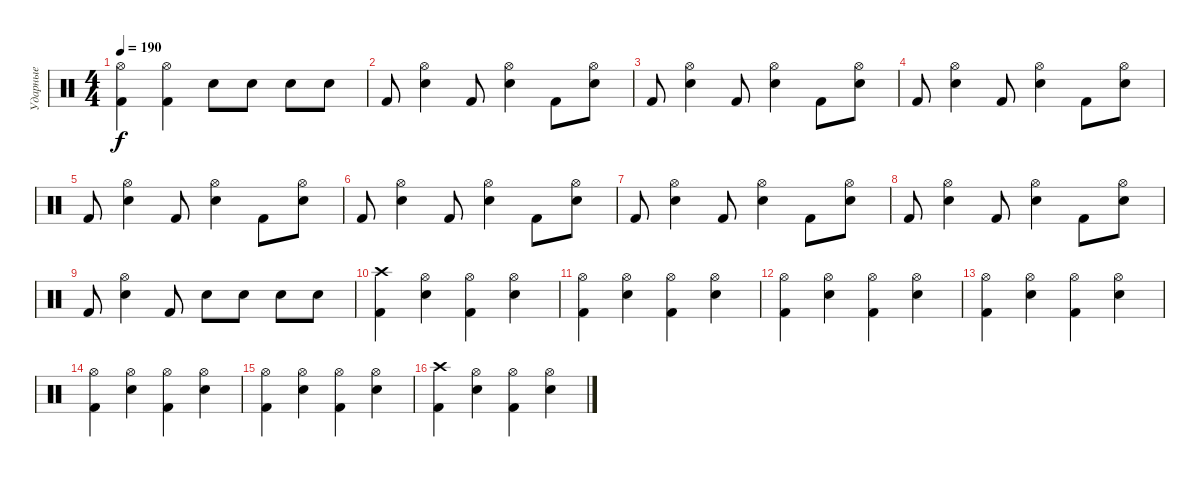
\track ("Ударные" "Ударные") {instrument percussion}
\staff {score}
\articulation defaults
\ts (4 4)
\tempo 190
\clef neutral
\ks c
("Hi-Hat (open)" "Kick (hit) 2").4{dy f} ("Hi-Hat (open)" "Kick (hit) 2").4 "Electric Snare (hit)".8 "Electric Snare (hit)".8 "Electric Snare (hit)".8 "Electric Snare (hit)".8 |
"Kick (hit) 2".8 ("Hi-Hat (open)" "Electric Snare (hit)").4 "Kick (hit) 2".8 ("Hi-Hat (open)" "Electric Snare (hit)").4 "Kick (hit) 2".8 ("Hi-Hat (open)" "Electric Snare (hit)").8 |
"Kick (hit) 2".8 ("Hi-Hat (open)" "Electric Snare (hit)").4 "Kick (hit) 2".8 ("Hi-Hat (open)" "Electric Snare (hit)").4 "Kick (hit) 2".8 ("Hi-Hat (open)" "Electric Snare (hit)").8 |
"Kick (hit) 2".8 ("Hi-Hat (open)" "Electric Snare (hit)").4 "Kick (hit) 2".8 ("Hi-Hat (open)" "Electric Snare (hit)").4 "Kick (hit) 2".8 ("Hi-Hat (open)" "Electric Snare (hit)").8 |
"Kick (hit) 2".8 ("Hi-Hat (open)" "Electric Snare (hit)").4 "Kick (hit) 2".8 ("Hi-Hat (open)" "Electric Snare (hit)").4 "Kick (hit) 2".8 ("Hi-Hat (open)" "Electric Snare (hit)").8 |
"Kick (hit) 2".8 ("Hi-Hat (open)" "Electric Snare (hit)").4 "Kick (hit) 2".8 ("Hi-Hat (open)" "Electric Snare (hit)").4 "Kick (hit) 2".8 ("Hi-Hat (open)" "Electric Snare (hit)").8 |
"Kick (hit) 2".8 ("Hi-Hat (open)" "Electric Snare (hit)").4 "Kick (hit) 2".8 ("Hi-Hat (open)" "Electric Snare (hit)").4 "Kick (hit) 2".8 ("Hi-Hat (open)" "Electric Snare (hit)").8 |
"Kick (hit) 2".8 ("Hi-Hat (open)" "Electric Snare (hit)").4 "Kick (hit) 2".8 ("Hi-Hat (open)" "Electric Snare (hit)").4 "Kick (hit) 2".8 ("Hi-Hat (open)" "Electric Snare (hit)").8 |
"Kick (hit) 2".8 ("Hi-Hat (open)" "Electric Snare (hit)").4 "Kick (hit) 2".8 "Electric Snare (hit)".8 "Electric Snare (hit)".8 "Electric Snare (hit)".8 "Electric Snare (hit)".8 |
("Crash high (hit)" "Kick (hit) 2").4 ("Hi-Hat (open)" "Electric Snare (hit)").4 ("Hi-Hat (open)" "Kick (hit) 2").4 ("Hi-Hat (open)" "Electric Snare (hit)").4 |
("Hi-Hat (open)" "Kick (hit) 2").4 ("Hi-Hat (open)" "Electric Snare (hit)").4 ("Hi-Hat (open)" "Kick (hit) 2").4 ("Hi-Hat (open)" "Electric Snare (hit)").4 |
("Hi-Hat (open)" "Kick (hit) 2").4 ("Hi-Hat (open)" "Electric Snare (hit)").4 ("Hi-Hat (open)" "Kick (hit) 2").4 ("Hi-Hat (open)" "Electric Snare (hit)").4 |
("Hi-Hat (open)" "Kick (hit) 2").4 ("Hi-Hat (open)" "Electric Snare (hit)").4 ("Hi-Hat (open)" "Kick (hit) 2").4 ("Hi-Hat (open)" "Electric Snare (hit)").4 |
("Hi-Hat (open)" "Kick (hit) 2").4 ("Hi-Hat (open)" "Electric Snare (hit)").4 ("Hi-Hat (open)" "Kick (hit) 2").4 ("Hi-Hat (open)" "Electric Snare (hit)").4 |
("Hi-Hat (open)" "Kick (hit) 2").4 ("Hi-Hat (open)" "Electric Snare (hit)").4 ("Hi-Hat (open)" "Kick (hit) 2").4 ("Hi-Hat (open)" "Electric Snare (hit)").4 |
("Crash high (hit)" "Kick (hit) 2").4 ("Hi-Hat (open)" "Electric Snare (hit)").4 ("Hi-Hat (open)" "Kick (hit) 2").4 ("Hi-Hat (open)" "Electric Snare (hit)").4
